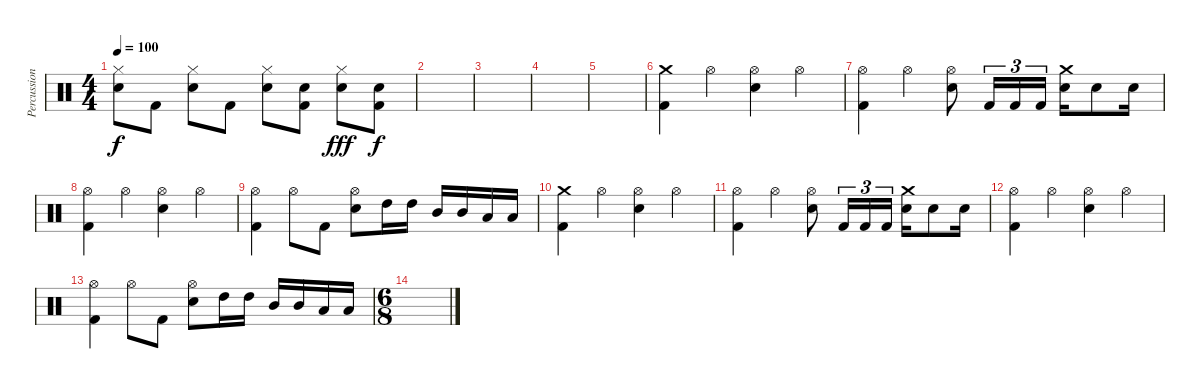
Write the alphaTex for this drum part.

\track ("Percussion" "Percussion") {instrument percussion}
\staff {score}
\articulation defaults
\ts (4 4)
\tempo 100
\clef neutral
\ks c
("Hi-Hat (closed)" "Electric Snare (hit)").8{dy f} "Kick (hit) 2".8 ("Hi-Hat (closed)" "Electric Snare (hit)").8 "Kick (hit) 2".8 ("Hi-Hat (closed)" "Electric Snare (hit)").8 ("Kick (hit) 2" "Electric Snare (hit)").8 ("Hi-Hat (closed)" "Electric Snare (hit)").8{dy fff} ("Kick (hit) 2" "Electric Snare (hit)").8{dy f} |
|
|
|
|
("Kick (hit) 2" "Crash medium (hit)").4 "Hi-Hat (open)".4 ("Electric Snare (hit)" "Hi-Hat (open)").4 "Hi-Hat (open)".4 |
("Kick (hit) 2" "Hi-Hat (open)").4 "Hi-Hat (open)".4 ("Electric Snare (hit)" "Hi-Hat (open)").8 "Kick (hit) 2".16{tu (3 2)} "Kick (hit) 2".16{tu (3 2)} "Kick (hit) 2".16{tu (3 2)} ("Electric Snare (hit)" "Crash medium (hit)").16 "Electric Snare (hit)".8 "Electric Snare (hit)".16 |
("Kick (hit) 2" "Hi-Hat (open)").4 "Hi-Hat (open)".4 ("Electric Snare (hit)" "Hi-Hat (open)").4 "Hi-Hat (open)".4 |
("Kick (hit) 2" "Hi-Hat (open)").4 "Hi-Hat (open)".8 "Kick (hit) 2".8 ("Electric Snare (hit)" "Hi-Hat (open)").8 "High Tom (hit)".16 "High Tom (hit)".16 "Mid Tom (hit)".16 "Mid Tom (hit)".16 "Low Tom (hit)".16 "Low Tom (hit)".16 |
("Kick (hit) 2" "Crash medium (hit)").4 "Hi-Hat (open)".4 ("Electric Snare (hit)" "Hi-Hat (open)").4 "Hi-Hat (open)".4 |
("Kick (hit) 2" "Hi-Hat (open)").4 "Hi-Hat (open)".4 ("Electric Snare (hit)" "Hi-Hat (open)").8 "Kick (hit) 2".16{tu (3 2)} "Kick (hit) 2".16{tu (3 2)} "Kick (hit) 2".16{tu (3 2)} ("Electric Snare (hit)" "Crash medium (hit)").16 "Electric Snare (hit)".8 "Electric Snare (hit)".16 |
("Kick (hit) 2" "Hi-Hat (open)").4 "Hi-Hat (open)".4 ("Electric Snare (hit)" "Hi-Hat (open)").4 "Hi-Hat (open)".4 |
("Kick (hit) 2" "Hi-Hat (open)").4 "Hi-Hat (open)".8 "Kick (hit) 2".8 ("Electric Snare (hit)" "Hi-Hat (open)").8 "High Tom (hit)".16 "High Tom (hit)".16 "Mid Tom (hit)".16 "Mid Tom (hit)".16 "Low Tom (hit)".16 "Low Tom (hit)".16 |
\ts (6 8)
